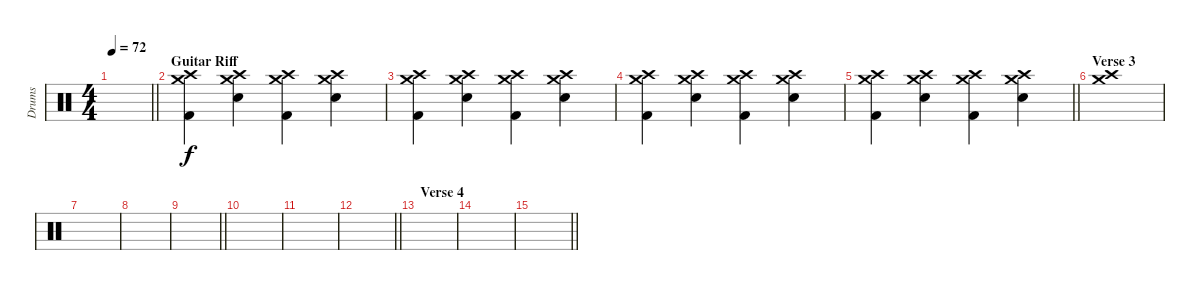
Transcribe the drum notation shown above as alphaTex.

\track ("Drums" "Drums") {instrument percussion}
\staff {score}
\articulation defaults
\ts (4 4)
\tempo 72
\clef neutral
\barLineRight lightlight
\ks c
|
\section ("" "Guitar Riff")
("Crash medium (hit)" "Crash high (hit)" "Kick (hit) 2").4 ("Crash medium (hit)" "Crash high (hit)" "Electric Snare (hit)").4 ("Crash medium (hit)" "Crash high (hit)" "Kick (hit) 2").4 ("Crash medium (hit)" "Crash high (hit)" "Electric Snare (hit)").4 |
("Crash medium (hit)" "Crash high (hit)" "Kick (hit) 2").4 ("Crash medium (hit)" "Crash high (hit)" "Electric Snare (hit)").4 ("Crash medium (hit)" "Crash high (hit)" "Kick (hit) 2").4 ("Crash medium (hit)" "Crash high (hit)" "Electric Snare (hit)").4 |
("Crash medium (hit)" "Crash high (hit)" "Kick (hit) 2").4 ("Crash medium (hit)" "Crash high (hit)" "Electric Snare (hit)").4 ("Crash medium (hit)" "Crash high (hit)" "Kick (hit) 2").4 ("Crash medium (hit)" "Crash high (hit)" "Electric Snare (hit)").4 |
\barLineRight lightlight
("Crash medium (hit)" "Crash high (hit)" "Kick (hit) 2").4 ("Crash medium (hit)" "Crash high (hit)" "Electric Snare (hit)").4 ("Crash medium (hit)" "Crash high (hit)" "Kick (hit) 2").4 ("Crash medium (hit)" "Crash high (hit)" "Electric Snare (hit)").4 |
\section ("" "Verse 3")
("Crash medium (hit)" "Crash high (hit)").1 |
|
|
\barLineRight lightlight
|
|
|
\barLineRight lightlight
|
\section ("" "Verse 4")
|
|
\barLineRight lightlight
